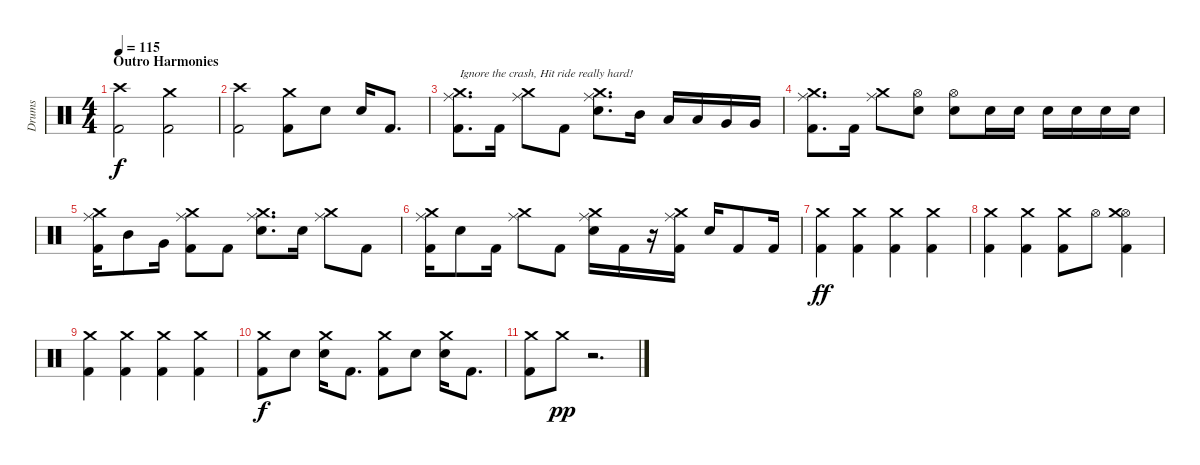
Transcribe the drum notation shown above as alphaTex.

\track ("Drums" "Drums") {instrument percussion}
\staff {score}
\articulation defaults
\ts (4 4)
\section ("" "Outro Harmonies")
\tempo 115
\clef neutral
\ks c
("Crash high (hit)" "Kick (hit) 2").2{dy f} ("Crash medium (hit)" "Kick (hit) 2").2 |
("Crash high (hit)" "Kick (hit) 2").2 ("Crash medium (hit)" "Kick (hit) 2").8 "Electric Snare (hit)".8 "Electric Snare (hit)".16 "Kick (hit) 2".8{d} |
("Ride (middle)" "Crash medium (hit)" "Kick (hit) 2").8{d txt "Ignore the crash, Hit ride really hard!"} "Kick (hit) 2".16 ("Ride (middle)" "Crash medium (hit)").8 "Kick (hit) 2".8 ("Ride (middle)" "Crash medium (hit)" "Electric Snare (hit)").8{d} "Mid Tom (hit)".16 "Low Tom (hit)".16 "Low Tom (hit)".16 "Very Low Tom (hit)".16 "Very Low Tom (hit)".16 |
("Ride (middle)" "Crash medium (hit)" "Kick (hit) 2").8{d} "Kick (hit) 2".16 ("Ride (middle)" "Crash medium (hit)").8 ("Hi-Hat (open)" "Electric Snare (hit)").8 ("Hi-Hat (open)" "Electric Snare (hit)").8 "Electric Snare (hit)".16 "Electric Snare (hit)".16 "Electric Snare (hit)".16 "Electric Snare (hit)".16 "Electric Snare (hit)".16 "Electric Snare (hit)".16 |
("Ride (middle)" "Crash medium (hit)" "Kick (hit) 2").16 "Mid Tom (hit)".8 "Very Low Tom (hit)".16 ("Ride (middle)" "Crash medium (hit)" "Kick (hit) 2").8 "Kick (hit) 2".8 ("Ride (middle)" "Crash medium (hit)" "Electric Snare (hit)").8{d} "Electric Snare (hit)".16 ("Ride (middle)" "Crash medium (hit)").8 "Kick (hit) 2".8 |
("Ride (middle)" "Crash medium (hit)" "Kick (hit) 2").16 "Electric Snare (hit)".8 "Kick (hit) 2".16 ("Ride (middle)" "Crash medium (hit)").8 "Kick (hit) 2".8 ("Ride (middle)" "Crash medium (hit)" "Electric Snare (hit)").16 "Kick (hit) 2".16 r.16 ("Ride (middle)" "Crash medium (hit)" "Kick (hit) 2").16 "Electric Snare (hit)".16 "Kick (hit) 2".8 "Kick (hit) 2".16 |
("Crash medium (hit)" "Kick (hit) 2").4{dy ff} ("Crash medium (hit)" "Kick (hit) 2").4 ("Crash medium (hit)" "Kick (hit) 2").4 ("Crash medium (hit)" "Kick (hit) 2").4 |
("Crash medium (hit)" "Kick (hit) 2").4 ("Crash medium (hit)" "Kick (hit) 2").4 ("Crash medium (hit)" "Kick (hit) 2").8 "Hi-Hat (open)".8 ("Hi-Hat (open)" "Crash medium (hit)" "Kick (hit) 2").4 |
("Crash medium (hit)" "Kick (hit) 2").4 ("Crash medium (hit)" "Kick (hit) 2").4 ("Crash medium (hit)" "Kick (hit) 2").4 ("Crash medium (hit)" "Kick (hit) 2").4 |
("Crash medium (hit)" "Kick (hit) 2").8{dy f} "Electric Snare (hit)".8 ("Crash medium (hit)" "Electric Snare (hit)").16 "Kick (hit) 2".8{d} ("Crash medium (hit)" "Kick (hit) 2").8 "Electric Snare (hit)".8 ("Crash medium (hit)" "Electric Snare (hit)").16 "Kick (hit) 2".8{d} |
("Crash medium (hit)" "Kick (hit) 2").8 "Crash medium (hit)".8{dy pp} r.2{d}
